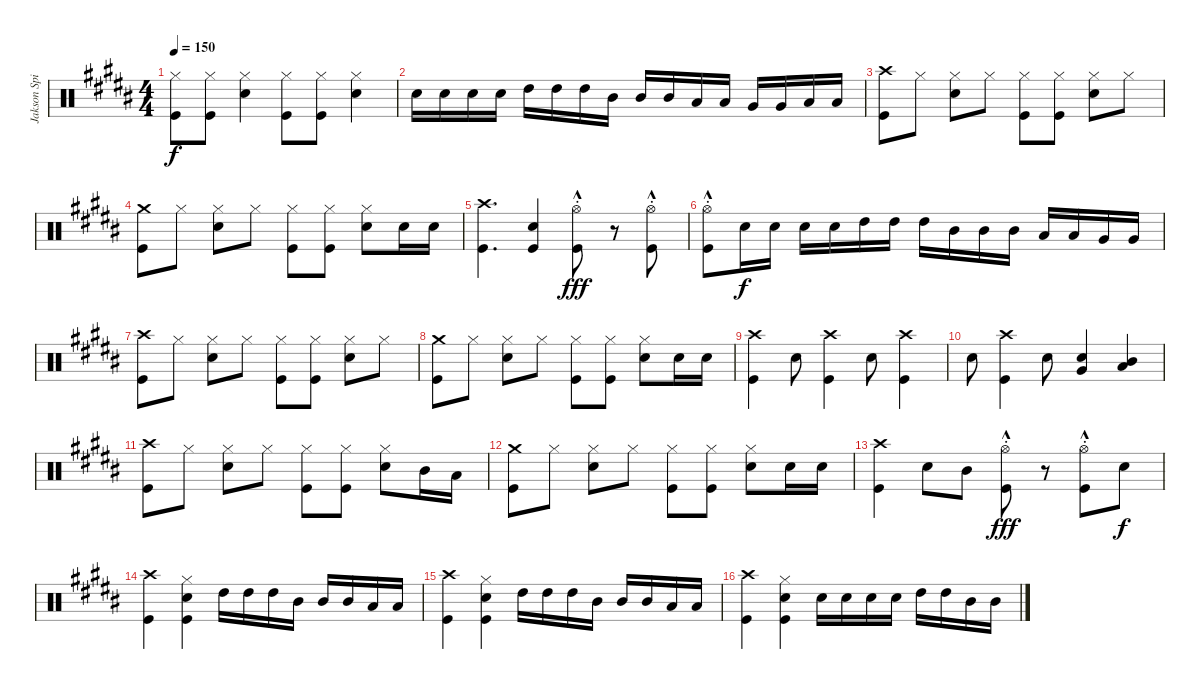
\track ("Jakson Spires Drums" "Jakson Spi") {instrument percussion}
\staff {score}
\articulation defaults
\ts (4 4)
\tempo 150
\clef neutral
\ks b
("Hi-Hat (closed)" "Kick (hit)").8{dy f} ("Hi-Hat (closed)" "Kick (hit)").8 ("Hi-Hat (closed)" "Snare (hit) 2").4 ("Hi-Hat (closed)" "Kick (hit)").8 ("Hi-Hat (closed)" "Kick (hit)").8 ("Hi-Hat (closed)" "Snare (hit) 2").4 |
"Snare (hit) 2".16 "Snare (hit) 2".16 "Snare (hit) 2".16 "Snare (hit) 2".16 "High Tom (hit)".16 "High Tom (hit)".16 "High Tom (hit)".16 "Mid Tom (hit)".16 "Mid Tom (hit)".16 "Mid Tom (hit)".16 "Low Tom (hit)".16 "Low Tom (hit)".16 "Very Low Tom (hit)".16 "Very Low Tom (hit)".16 "Low Floor Tom (hit)".16 "Low Floor Tom (hit)".16 |
("Crash high (hit)" "Kick (hit)").8 "Hi-Hat (closed)".8 ("Hi-Hat (closed)" "Snare (hit) 2").8 "Hi-Hat (closed)".8 ("Hi-Hat (closed)" "Kick (hit)").8 ("Hi-Hat (closed)" "Kick (hit)").8 ("Hi-Hat (closed)" "Snare (hit) 2").8 "Hi-Hat (closed)".8 |
("Crash medium (hit)" "Kick (hit)").8 "Hi-Hat (closed)".8 ("Hi-Hat (closed)" "Snare (hit) 2").8 "Hi-Hat (closed)".8 ("Hi-Hat (closed)" "Kick (hit)").8 ("Hi-Hat (closed)" "Kick (hit)").8 ("Hi-Hat (closed)" "Snare (hit) 2").8 "Snare (hit) 2".16 "Snare (hit) 2".16 |
("Crash high (hit)" "Kick (hit)").4{d} ("Snare (hit) 2" "Kick (hit)").4 ("Hi-Hat (open)"{hac st} "Kick (hit)").8{dy fff} r.8 ("Hi-Hat (open)"{hac st} "Kick (hit)").8 |
("Hi-Hat (open)"{hac st} "Kick (hit)").8 "Snare (hit) 2".16{dy f} "Snare (hit) 2".16 "Snare (hit) 2".16 "Snare (hit) 2".16 "High Tom (hit)".16 "High Tom (hit)".16 "High Tom (hit)".16 "Mid Tom (hit)".16 "Mid Tom (hit)".16 "Mid Tom (hit)".16 "Low Tom (hit)".16 "Low Tom (hit)".16 "Very Low Tom (hit)".16 "Very Low Tom (hit)".16 |
("Crash high (hit)" "Kick (hit)").8 "Hi-Hat (closed)".8 ("Hi-Hat (closed)" "Snare (hit) 2").8 "Hi-Hat (closed)".8 ("Hi-Hat (closed)" "Kick (hit)").8 ("Hi-Hat (closed)" "Kick (hit)").8 ("Hi-Hat (closed)" "Snare (hit) 2").8 "Hi-Hat (closed)".8 |
("Crash medium (hit)" "Kick (hit)").8 "Hi-Hat (closed)".8 ("Hi-Hat (closed)" "Snare (hit) 2").8 "Hi-Hat (closed)".8 ("Hi-Hat (closed)" "Kick (hit)").8 ("Hi-Hat (closed)" "Kick (hit)").8 ("Hi-Hat (closed)" "Snare (hit) 2").8 "Snare (hit) 2".16 "Snare (hit) 2".16 |
("Crash high (hit)" "Kick (hit)").4 "Snare (hit) 2".8 ("Crash high (hit)" "Kick (hit)").4 "Snare (hit) 2".8 ("Crash high (hit)" "Kick (hit)").4 |
"Snare (hit) 2".8 ("Crash high (hit)" "Kick (hit)").4 "Snare (hit) 2".8 ("Snare (hit) 2" "Very Low Tom (hit)").4 ("Mid Tom (hit)" "Low Tom (hit)").4 |
("Crash high (hit)" "Kick (hit)").8 "Hi-Hat (closed)".8 ("Hi-Hat (closed)" "Snare (hit) 2").8 "Hi-Hat (closed)".8 ("Hi-Hat (closed)" "Kick (hit)").8 ("Hi-Hat (closed)" "Kick (hit)").8 ("Hi-Hat (closed)" "Snare (hit) 2").8 "Mid Tom (hit)".16 "Low Tom (hit)".16 |
("Crash medium (hit)" "Kick (hit)").8 "Hi-Hat (closed)".8 ("Hi-Hat (closed)" "Snare (hit) 2").8 "Hi-Hat (closed)".8 ("Hi-Hat (closed)" "Kick (hit)").8 ("Hi-Hat (closed)" "Kick (hit)").8 ("Hi-Hat (closed)" "Snare (hit) 2").8 "Snare (hit) 2".16 "Snare (hit) 2".16 |
("Crash high (hit)" "Kick (hit)").4 "Snare (hit) 2".8 "Mid Tom (hit)".8 ("Hi-Hat (open)" "Kick (hit)"{hac st}).8{dy fff} r.8 ("Hi-Hat (open)" "Kick (hit)"{hac st}).8 "Snare (hit) 2".8{dy f} |
("Crash high (hit)" "Kick (hit)").4 ("Hi-Hat (closed)" "Snare (hit) 2" "Kick (hit)").4 "High Tom (hit)".16 "High Tom (hit)".16 "High Tom (hit)".16 "Mid Tom (hit)".16 "Mid Tom (hit)".16 "Mid Tom (hit)".16 "Low Tom (hit)".16 "Low Tom (hit)".16 |
("Crash high (hit)" "Kick (hit)").4 ("Hi-Hat (closed)" "Snare (hit) 2" "Kick (hit)").4 "High Tom (hit)".16 "High Tom (hit)".16 "High Tom (hit)".16 "Mid Tom (hit)".16 "Mid Tom (hit)".16 "Mid Tom (hit)".16 "Low Tom (hit)".16 "Low Tom (hit)".16 |
("Crash high (hit)" "Kick (hit)").4 ("Hi-Hat (closed)" "Snare (hit) 2" "Kick (hit)").4 "Snare (hit) 2".16 "Snare (hit) 2".16 "Snare (hit) 2".16 "Snare (hit) 2".16 "High Tom (hit)".16 "High Tom (hit)".16 "Mid Tom (hit)".16 "Mid Tom (hit)".16
